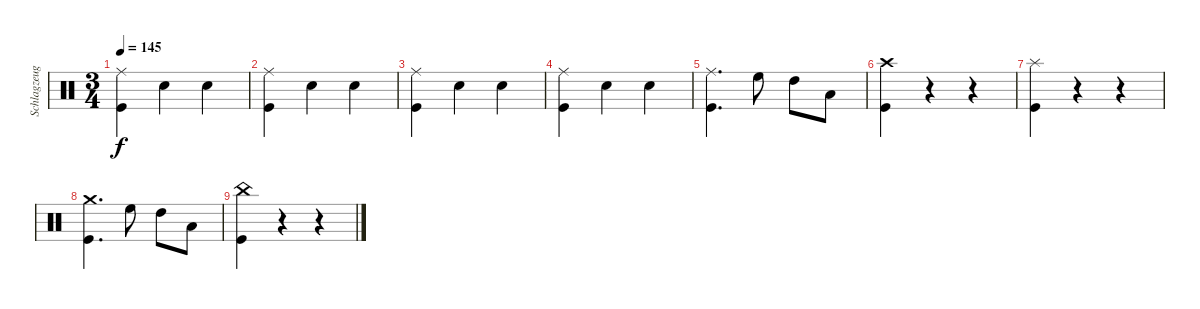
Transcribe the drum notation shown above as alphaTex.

\track ("Schlagzeug" "Schlagzeug") {instrument percussion}
\staff {score}
\articulation defaults
\ts (3 4)
\tempo 145
\clef neutral
\ks c
("Ride (middle)" "Kick (hit)").4{dy f} "Snare (hit) 2".4 "Snare (hit) 2".4 |
("Ride (middle)" "Kick (hit)").4 "Snare (hit) 2".4 "Snare (hit) 2".4 |
("Ride (middle)" "Kick (hit)").4 "Snare (hit) 2".4 "Snare (hit) 2".4 |
("Ride (middle)" "Kick (hit)").4 "Snare (hit) 2".4 "Snare (hit) 2".4 |
("Ride (middle)" "Kick (hit)").4{d} "High Floor Tom (hit)".8 "High Tom (hit)".8 "Low Tom (hit)".8 |
("Crash high (hit)" "Kick (hit)").4 r.4 r.4 |
("Splash (hit)" "Kick (hit)").4 r.4 r.4 |
("Crash medium (hit)" "Kick (hit)").4{d} "High Floor Tom (hit)".8 "High Tom (hit)".8 "Low Tom (hit)".8 |
("China (hit)" "Kick (hit)").4 r.4 r.4
